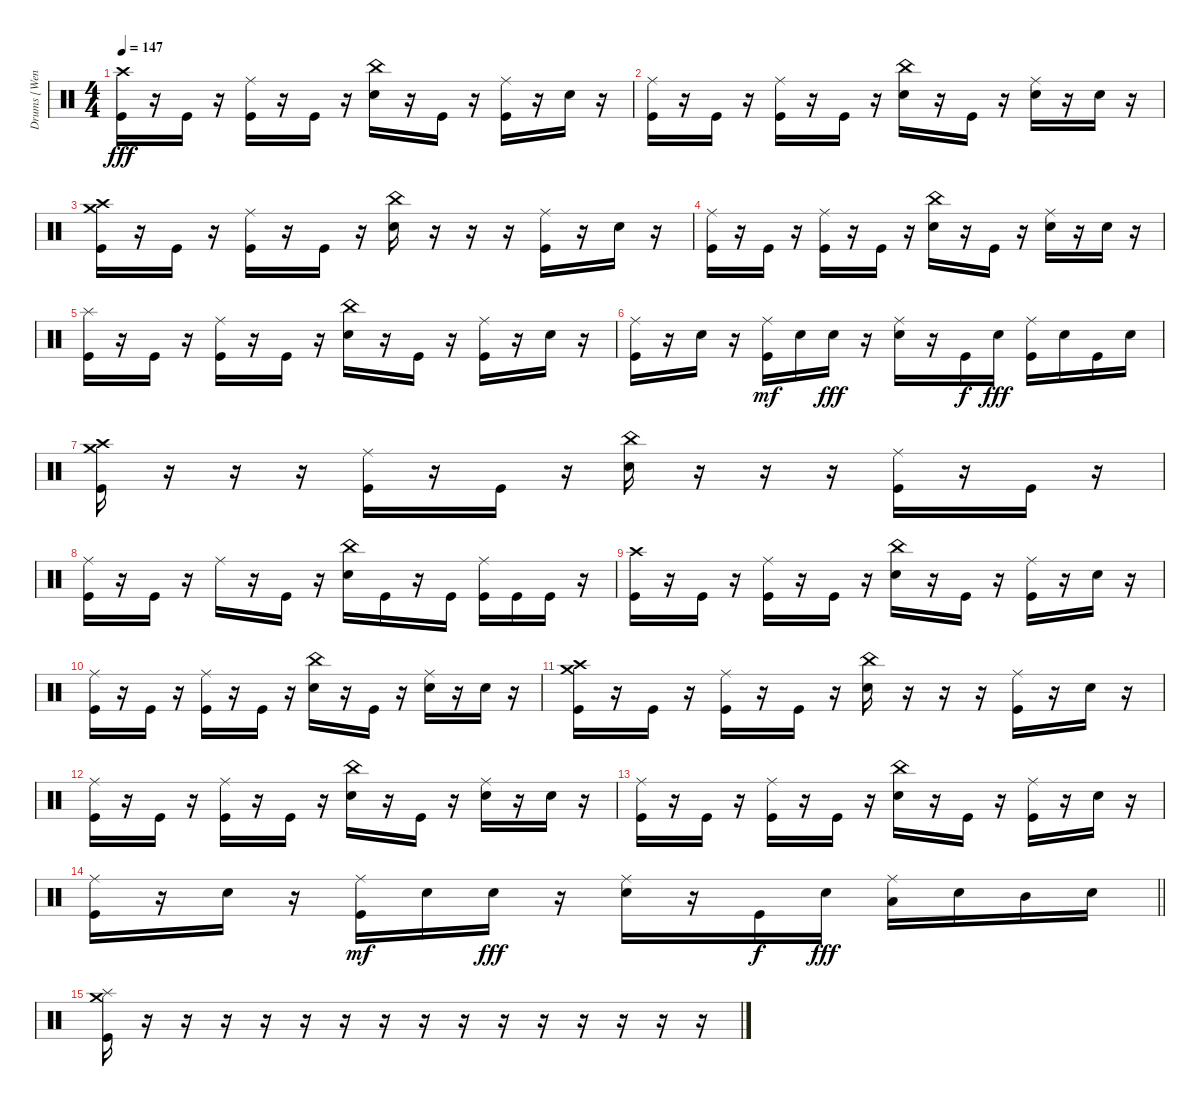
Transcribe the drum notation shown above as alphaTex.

\track ("Drums [Wengren]" "Drums [Wen") {instrument percussion}
\staff {score}
\articulation defaults
\ts (4 4)
\tempo 147
\clef neutral
\ks c
("Crash high (hit)" "Kick (hit)").16{dy fff} r.16 "Kick (hit)".16 r.16 ("Ride (middle)" "Kick (hit)").16 r.16 "Kick (hit)".16 r.16 ("China (hit)" "Snare (hit) 2").16 r.16 "Kick (hit)".16 r.16 ("Ride (middle)" "Kick (hit)").16 r.16 "Snare (hit) 2".16 r.16 |
("Ride (middle)" "Kick (hit)").16 r.16 "Kick (hit)".16 r.16 ("Ride (middle)" "Kick (hit)").16 r.16 "Kick (hit)".16 r.16 ("China (hit)" "Snare (hit) 2").16 r.16 "Kick (hit)".16 r.16 ("Ride (middle)" "Snare (hit) 2").16 r.16 "Snare (hit) 2".16 r.16 |
("Crash high (hit)" "Crash medium (hit)" "Kick (hit)").16 r.16 "Kick (hit)".16 r.16 ("Ride (middle)" "Kick (hit)").16 r.16 "Kick (hit)".16 r.16 ("China (hit)" "Snare (hit) 2").16 r.16 r.16 r.16 ("Ride (middle)" "Kick (hit)").16 r.16 "Snare (hit) 2".16 r.16 |
("Ride (middle)" "Kick (hit)").16 r.16 "Kick (hit)".16 r.16 ("Ride (middle)" "Kick (hit)").16 r.16 "Kick (hit)".16 r.16 ("China (hit)" "Snare (hit) 2").16 r.16 "Kick (hit)".16 r.16 ("Ride (middle)" "Snare (hit) 2").16 r.16 "Snare (hit) 2".16 r.16 |
("Splash (hit)" "Kick (hit)").16 r.16 "Kick (hit)".16 r.16 ("Ride (middle)" "Kick (hit)").16 r.16 "Kick (hit)".16 r.16 ("China (hit)" "Snare (hit) 2").16 r.16 "Kick (hit)".16 r.16 ("Ride (middle)" "Kick (hit)").16 r.16 "Snare (hit) 2".16 r.16 |
("Ride (middle)" "Kick (hit)").16 r.16 "Snare (hit) 2".16 r.16 ("Ride (middle)" "Kick (hit)").16{dy mf} "Snare (hit) 2".16 "Snare (hit) 2".16{dy fff} r.16 ("Ride (middle)" "Snare (hit) 2").16 r.16 "Kick (hit)".16{dy f} "Snare (hit) 2".16{dy fff} ("Ride (middle)" "Kick (hit)").16 "Snare (hit) 2".16 "Kick (hit)".16 "Snare (hit) 2".16 |
("Crash high (hit)" "Crash medium (hit)" "Kick (hit)").16 r.16 r.16 r.16 ("Ride (middle)" "Kick (hit)").16 r.16 "Kick (hit)".16 r.16 ("China (hit)" "Snare (hit) 2").16 r.16 r.16 r.16 ("Ride (middle)" "Kick (hit)").16 r.16 "Kick (hit)".16 r.16 |
("Ride (middle)" "Kick (hit)").16 r.16 "Kick (hit)".16 r.16 "Ride (middle)".16 r.16 "Kick (hit)".16 r.16 ("China (hit)" "Snare (hit) 2").16 "Kick (hit)".16 r.16 "Kick (hit)".16 ("Ride (middle)" "Kick (hit)").16 "Kick (hit)".16 "Kick (hit)".16 r.16 |
("Crash high (hit)" "Kick (hit)").16 r.16 "Kick (hit)".16 r.16 ("Ride (middle)" "Kick (hit)").16 r.16 "Kick (hit)".16 r.16 ("China (hit)" "Snare (hit) 2").16 r.16 "Kick (hit)".16 r.16 ("Ride (middle)" "Kick (hit)").16 r.16 "Snare (hit) 2".16 r.16 |
("Ride (middle)" "Kick (hit)").16 r.16 "Kick (hit)".16 r.16 ("Ride (middle)" "Kick (hit)").16 r.16 "Kick (hit)".16 r.16 ("China (hit)" "Snare (hit) 2").16 r.16 "Kick (hit)".16 r.16 ("Ride (middle)" "Snare (hit) 2").16 r.16 "Snare (hit) 2".16 r.16 |
("Crash high (hit)" "Crash medium (hit)" "Kick (hit)").16 r.16 "Kick (hit)".16 r.16 ("Ride (middle)" "Kick (hit)").16 r.16 "Kick (hit)".16 r.16 ("China (hit)" "Snare (hit) 2").16 r.16 r.16 r.16 ("Ride (middle)" "Kick (hit)").16 r.16 "Snare (hit) 2".16 r.16 |
("Ride (middle)" "Kick (hit)").16 r.16 "Kick (hit)".16 r.16 ("Ride (middle)" "Kick (hit)").16 r.16 "Kick (hit)".16 r.16 ("China (hit)" "Snare (hit) 2").16 r.16 "Kick (hit)".16 r.16 ("Ride (middle)" "Snare (hit) 2").16 r.16 "Snare (hit) 2".16 r.16 |
("Ride (middle)" "Kick (hit)").16 r.16 "Kick (hit)".16 r.16 ("Ride (middle)" "Kick (hit)").16 r.16 "Kick (hit)".16 r.16 ("China (hit)" "Snare (hit) 2").16 r.16 "Kick (hit)".16 r.16 ("Ride (middle)" "Kick (hit)").16 r.16 "Snare (hit) 2".16 r.16 |
\barLineRight lightlight
("Ride (middle)" "Kick (hit)").16 r.16 "Snare (hit) 2".16 r.16 ("Ride (middle)" "Kick (hit)").16{dy mf} "Snare (hit) 2".16 "Snare (hit) 2".16{dy fff} r.16 ("Ride (middle)" "Snare (hit) 2").16 r.16 "Kick (hit)".16{dy f} "Snare (hit) 2".16{dy fff} ("Ride (middle)" "Low Tom (hit)").16 "Snare (hit) 2".16 "Mid Tom (hit)".16 "Snare (hit) 2".16 |
("Splash (hit)" "Crash medium (hit)" "Kick (hit)").16 r.16 r.16 r.16 r.16 r.16 r.16 r.16 r.16 r.16 r.16 r.16 r.16 r.16 r.16 r.16
